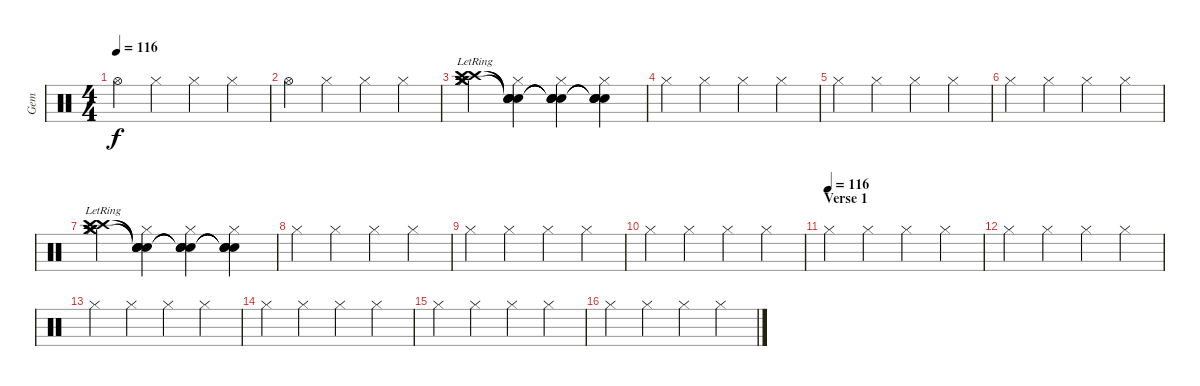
\track ("Gem" "Gem") {instrument percussion}
\staff {score}
\articulation defaults
\ts (4 4)
\tempo 116
\clef neutral
\ks c "Hi-Hat (open)".4{dy f} "Hi-Hat (closed)".4 "Hi-Hat (closed)".4 "Hi-Hat (closed)".4
|
"Hi-Hat (open)".4 "Hi-Hat (closed)".4 "Hi-Hat (closed)".4 "Hi-Hat (closed)".4 |
("Hi-Hat (closed)" "Crash high (hit)"{lr} "Crash medium (hit)"{lr} "Crash high (hit)"{lr} "Crash medium (hit)"{lr}).4 ("Hi-Hat (closed)" "Snare (hit)"{t} "Snare (hit)"{t} "Snare (hit)"{t} "Snare (hit)"{t}).4 ("Hi-Hat (closed)" "Snare (hit)"{t} "Snare (hit)"{t} "Snare (hit)"{t} "Snare (hit)"{t}).4 ("Hi-Hat (closed)" "Snare (hit)"{t} "Snare (hit)"{t} "Snare (hit)"{t} "Snare (hit)"{t}).4 |
"Hi-Hat (closed)".4 "Hi-Hat (closed)".4 "Hi-Hat (closed)".4 "Hi-Hat (closed)".4 |
"Hi-Hat (closed)".4 "Hi-Hat (closed)".4 "Hi-Hat (closed)".4 "Hi-Hat (closed)".4 |
"Hi-Hat (closed)".4 "Hi-Hat (closed)".4 "Hi-Hat (closed)".4 "Hi-Hat (closed)".4 |
("Hi-Hat (closed)" "Crash high (hit)"{lr} "Crash medium (hit)"{lr} "Crash high (hit)"{lr} "Crash medium (hit)"{lr}).4 ("Hi-Hat (closed)" "Snare (hit)"{t} "Snare (hit)"{t} "Snare (hit)"{t} "Snare (hit)"{t}).4 ("Hi-Hat (closed)" "Snare (hit)"{t} "Snare (hit)"{t} "Snare (hit)"{t} "Snare (hit)"{t}).4 ("Hi-Hat (closed)" "Snare (hit)"{t} "Snare (hit)"{t} "Snare (hit)"{t} "Snare (hit)"{t}).4 |
"Hi-Hat (closed)".4 "Hi-Hat (closed)".4 "Hi-Hat (closed)".4 "Hi-Hat (closed)".4 |
"Hi-Hat (closed)".4 "Hi-Hat (closed)".4 "Hi-Hat (closed)".4 "Hi-Hat (closed)".4 |
"Hi-Hat (closed)".4 "Hi-Hat (closed)".4 "Hi-Hat (closed)".4 "Hi-Hat (closed)".4 |
\section ("" "Verse 1")
\tempo (116)
"Hi-Hat (closed)".4 "Hi-Hat (closed)".4 "Hi-Hat (closed)".4 "Hi-Hat (closed)".4 |
"Hi-Hat (closed)".4 "Hi-Hat (closed)".4 "Hi-Hat (closed)".4 "Hi-Hat (closed)".4 |
"Hi-Hat (closed)".4 "Hi-Hat (closed)".4 "Hi-Hat (closed)".4 "Hi-Hat (closed)".4 |
"Hi-Hat (closed)".4 "Hi-Hat (closed)".4 "Hi-Hat (closed)".4 "Hi-Hat (closed)".4 |
"Hi-Hat (closed)".4 "Hi-Hat (closed)".4 "Hi-Hat (closed)".4 "Hi-Hat (closed)".4 |
"Hi-Hat (closed)".4 "Hi-Hat (closed)".4 "Hi-Hat (closed)".4 "Hi-Hat (closed)".4
